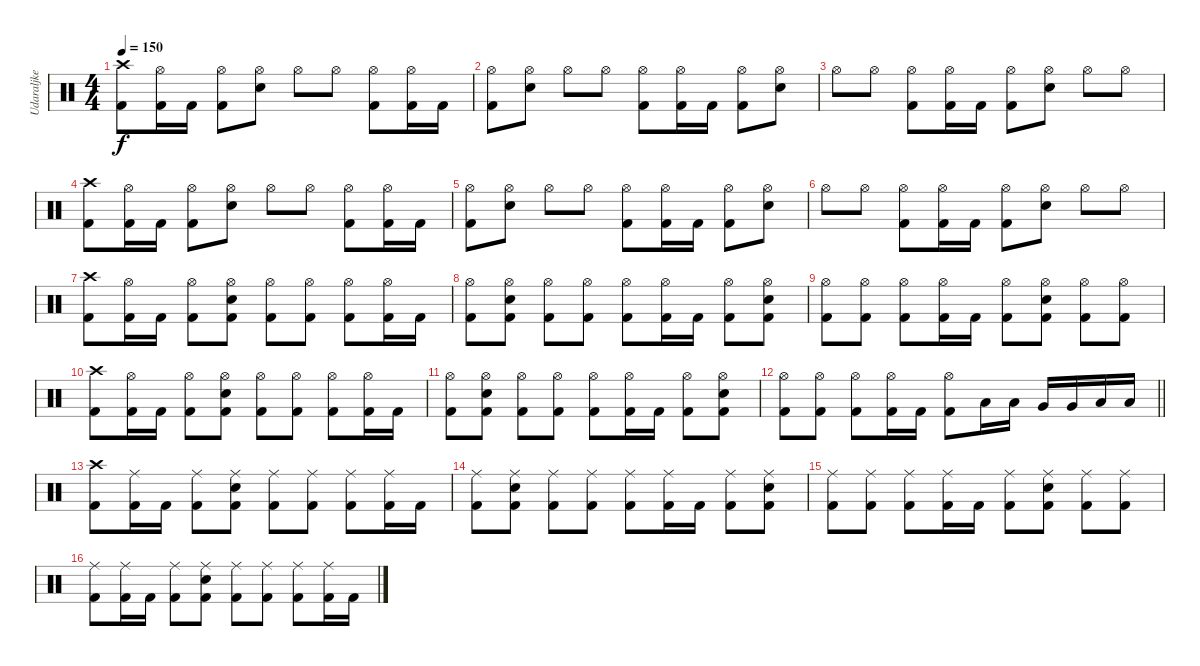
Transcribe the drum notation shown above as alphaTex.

\track ("Udaraljke" "Udaraljke") {instrument percussion}
\staff {score}
\articulation defaults
\ts (4 4)
\section ("" "")
\tempo 150
\clef neutral
\ks c
("Crash high (hit)" "Kick (hit) 2").8{dy f} ("Hi-Hat (open)" "Kick (hit) 2").16 "Kick (hit) 2".16 ("Hi-Hat (open)" "Kick (hit) 2").8 ("Hi-Hat (open)" "Electric Snare (hit)").8 "Hi-Hat (open)".8 "Hi-Hat (open)".8 ("Hi-Hat (open)" "Kick (hit) 2").8 ("Hi-Hat (open)" "Kick (hit) 2").16 "Kick (hit) 2".16 |
("Hi-Hat (open)" "Kick (hit) 2").8 ("Hi-Hat (open)" "Electric Snare (hit)").8 "Hi-Hat (open)".8 "Hi-Hat (open)".8 ("Hi-Hat (open)" "Kick (hit) 2").8 ("Hi-Hat (open)" "Kick (hit) 2").16 "Kick (hit) 2".16 ("Hi-Hat (open)" "Kick (hit) 2").8 ("Hi-Hat (open)" "Electric Snare (hit)").8 |
"Hi-Hat (open)".8 "Hi-Hat (open)".8 ("Hi-Hat (open)" "Kick (hit) 2").8 ("Hi-Hat (open)" "Kick (hit) 2").16 "Kick (hit) 2".16 ("Hi-Hat (open)" "Kick (hit) 2").8 ("Hi-Hat (open)" "Electric Snare (hit)").8 "Hi-Hat (open)".8 "Hi-Hat (open)".8 |
("Crash high (hit)" "Kick (hit) 2").8 ("Hi-Hat (open)" "Kick (hit) 2").16 "Kick (hit) 2".16 ("Hi-Hat (open)" "Kick (hit) 2").8 ("Hi-Hat (open)" "Electric Snare (hit)").8 "Hi-Hat (open)".8 "Hi-Hat (open)".8 ("Hi-Hat (open)" "Kick (hit) 2").8 ("Hi-Hat (open)" "Kick (hit) 2").16 "Kick (hit) 2".16 |
("Hi-Hat (open)" "Kick (hit) 2").8 ("Hi-Hat (open)" "Electric Snare (hit)").8 "Hi-Hat (open)".8 "Hi-Hat (open)".8 ("Hi-Hat (open)" "Kick (hit) 2").8 ("Hi-Hat (open)" "Kick (hit) 2").16 "Kick (hit) 2".16 ("Hi-Hat (open)" "Kick (hit) 2").8 ("Hi-Hat (open)" "Electric Snare (hit)").8 |
"Hi-Hat (open)".8 "Hi-Hat (open)".8 ("Hi-Hat (open)" "Kick (hit) 2").8 ("Hi-Hat (open)" "Kick (hit) 2").16 "Kick (hit) 2".16 ("Hi-Hat (open)" "Kick (hit) 2").8 ("Hi-Hat (open)" "Electric Snare (hit)").8 "Hi-Hat (open)".8 "Hi-Hat (open)".8 |
("Crash high (hit)" "Kick (hit) 2").8 ("Hi-Hat (open)" "Kick (hit) 2").16 "Kick (hit) 2".16 ("Hi-Hat (open)" "Kick (hit) 2").8 ("Hi-Hat (open)" "Electric Snare (hit)" "Kick (hit) 2").8 ("Hi-Hat (open)" "Kick (hit) 2").8 ("Hi-Hat (open)" "Kick (hit) 2").8 ("Hi-Hat (open)" "Kick (hit) 2").8 ("Hi-Hat (open)" "Kick (hit) 2").16 "Kick (hit) 2".16 |
("Hi-Hat (open)" "Kick (hit) 2").8 ("Hi-Hat (open)" "Electric Snare (hit)" "Kick (hit) 2").8 ("Hi-Hat (open)" "Kick (hit) 2").8 ("Hi-Hat (open)" "Kick (hit) 2").8 ("Hi-Hat (open)" "Kick (hit) 2").8 ("Hi-Hat (open)" "Kick (hit) 2").16 "Kick (hit) 2".16 ("Hi-Hat (open)" "Kick (hit) 2").8 ("Hi-Hat (open)" "Electric Snare (hit)" "Kick (hit) 2").8 |
("Hi-Hat (open)" "Kick (hit) 2").8 ("Hi-Hat (open)" "Kick (hit) 2").8 ("Hi-Hat (open)" "Kick (hit) 2").8 ("Hi-Hat (open)" "Kick (hit) 2").16 "Kick (hit) 2".16 ("Hi-Hat (open)" "Kick (hit) 2").8 ("Hi-Hat (open)" "Electric Snare (hit)" "Kick (hit) 2").8 ("Hi-Hat (open)" "Kick (hit) 2").8 ("Hi-Hat (open)" "Kick (hit) 2").8 |
("Crash high (hit)" "Kick (hit) 2").8 ("Hi-Hat (open)" "Kick (hit) 2").16 "Kick (hit) 2".16 ("Hi-Hat (open)" "Kick (hit) 2").8 ("Hi-Hat (open)" "Electric Snare (hit)" "Kick (hit) 2").8 ("Hi-Hat (open)" "Kick (hit) 2").8 ("Hi-Hat (open)" "Kick (hit) 2").8 ("Hi-Hat (open)" "Kick (hit) 2").8 ("Hi-Hat (open)" "Kick (hit) 2").16 "Kick (hit) 2".16 |
("Hi-Hat (open)" "Kick (hit) 2").8 ("Hi-Hat (open)" "Electric Snare (hit)" "Kick (hit) 2").8 ("Hi-Hat (open)" "Kick (hit) 2").8 ("Hi-Hat (open)" "Kick (hit) 2").8 ("Hi-Hat (open)" "Kick (hit) 2").8 ("Hi-Hat (open)" "Kick (hit) 2").16 "Kick (hit) 2".16 ("Hi-Hat (open)" "Kick (hit) 2").8 ("Hi-Hat (open)" "Electric Snare (hit)" "Kick (hit) 2").8 |
\barLineRight lightlight
("Hi-Hat (open)" "Kick (hit) 2").8 ("Hi-Hat (open)" "Kick (hit) 2").8 ("Hi-Hat (open)" "Kick (hit) 2").8 ("Hi-Hat (open)" "Kick (hit) 2").16 "Kick (hit) 2".16 ("Hi-Hat (open)" "Kick (hit) 2").8 "Low Floor Tom (hit)".16 "Low Floor Tom (hit)".16 "Very Low Tom (hit)".16 "Very Low Tom (hit)".16 "Low Tom (hit)".16 "Low Tom (hit)".16 |
("Crash high (hit)" "Kick (hit) 2").8 ("Ride (middle)" "Kick (hit) 2").16 "Kick (hit) 2".16 ("Ride (middle)" "Kick (hit) 2").8 ("Ride (middle)" "Electric Snare (hit)" "Kick (hit) 2").8 ("Ride (middle)" "Kick (hit) 2").8 ("Ride (middle)" "Kick (hit) 2").8 ("Ride (middle)" "Kick (hit) 2").8 ("Ride (middle)" "Kick (hit) 2").16 "Kick (hit) 2".16 |
("Ride (middle)" "Kick (hit) 2").8 ("Ride (middle)" "Electric Snare (hit)" "Kick (hit) 2").8 ("Ride (middle)" "Kick (hit) 2").8 ("Ride (middle)" "Kick (hit) 2").8 ("Ride (middle)" "Kick (hit) 2").8 ("Ride (middle)" "Kick (hit) 2").16 "Kick (hit) 2".16 ("Ride (middle)" "Kick (hit) 2").8 ("Ride (middle)" "Electric Snare (hit)" "Kick (hit) 2").8 |
("Ride (middle)" "Kick (hit) 2").8 ("Ride (middle)" "Kick (hit) 2").8 ("Ride (middle)" "Kick (hit) 2").8 ("Ride (middle)" "Kick (hit) 2").16 "Kick (hit) 2".16 ("Ride (middle)" "Kick (hit) 2").8 ("Ride (middle)" "Electric Snare (hit)" "Kick (hit) 2").8 ("Ride (middle)" "Kick (hit) 2").8 ("Ride (middle)" "Kick (hit) 2").8 |
("Ride (middle)" "Kick (hit) 2").8 ("Ride (middle)" "Kick (hit) 2").16 "Kick (hit) 2".16 ("Ride (middle)" "Kick (hit) 2").8 ("Ride (middle)" "Electric Snare (hit)" "Kick (hit) 2").8 ("Ride (middle)" "Kick (hit) 2").8 ("Ride (middle)" "Kick (hit) 2").8 ("Ride (middle)" "Kick (hit) 2").8 ("Ride (middle)" "Kick (hit) 2").16 "Kick (hit) 2".16
